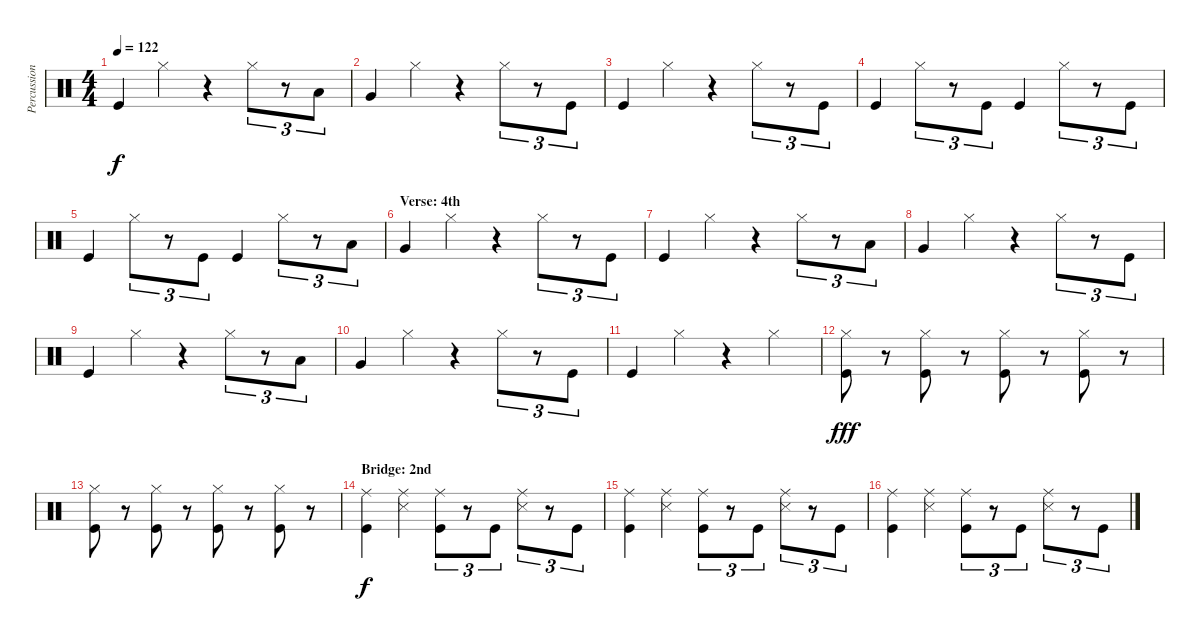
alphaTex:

\track ("Percussion" "Percussion") {instrument percussion}
\staff {score}
\articulation defaults
\ts (4 4)
\tempo 122
\clef neutral
\ks c "Kick (hit)".4{dy f} "Hi-Hat (closed)".4
r.4 "Hi-Hat (closed)".8{tu (3 2)} r.8{tu (3 2)} "Low Tom (hit)".8{tu (3 2)} |
"Very Low Tom (hit)".4 "Hi-Hat (closed)".4 r.4 "Hi-Hat (closed)".8{tu (3 2)} r.8{tu (3 2)} "Kick (hit)".8{tu (3 2)} |
"Kick (hit)".4 "Hi-Hat (closed)".4 r.4 "Hi-Hat (closed)".8{tu (3 2)} r.8{tu (3 2)} "Kick (hit)".8{tu (3 2)} |
"Kick (hit)".4 "Hi-Hat (closed)".8{tu (3 2)} r.8{tu (3 2)} "Kick (hit)".8{tu (3 2)} "Kick (hit)".4 "Hi-Hat (closed)".8{tu (3 2)} r.8{tu (3 2)} "Kick (hit)".8{tu (3 2)} |
"Kick (hit)".4 "Hi-Hat (closed)".8{tu (3 2)} r.8{tu (3 2)} "Kick (hit)".8{tu (3 2)} "Kick (hit)".4 "Hi-Hat (closed)".8{tu (3 2)} r.8{tu (3 2)} "Low Tom (hit)".8{tu (3 2)} |
\section ("" "Verse: 4th")
"Very Low Tom (hit)".4 "Hi-Hat (closed)".4 r.4 "Hi-Hat (closed)".8{tu (3 2)} r.8{tu (3 2)} "Kick (hit)".8{tu (3 2)} |
"Kick (hit)".4 "Hi-Hat (closed)".4 r.4 "Hi-Hat (closed)".8{tu (3 2)} r.8{tu (3 2)} "Low Tom (hit)".8{tu (3 2)} |
"Very Low Tom (hit)".4 "Hi-Hat (closed)".4 r.4 "Hi-Hat (closed)".8{tu (3 2)} r.8{tu (3 2)} "Kick (hit)".8{tu (3 2)} |
"Kick (hit)".4 "Hi-Hat (closed)".4 r.4 "Hi-Hat (closed)".8{tu (3 2)} r.8{tu (3 2)} "Low Tom (hit)".8{tu (3 2)} |
"Very Low Tom (hit)".4 "Hi-Hat (closed)".4 r.4 "Hi-Hat (closed)".8{tu (3 2)} r.8{tu (3 2)} "Kick (hit)".8{tu (3 2)} |
"Kick (hit)".4 "Hi-Hat (closed)".4 r.4 "Hi-Hat (closed)".4 |
("Hi-Hat (closed)" "Kick (hit)").8{dy fff} r.8 ("Hi-Hat (closed)" "Kick (hit)").8 r.8 ("Hi-Hat (closed)" "Kick (hit)").8 r.8 ("Hi-Hat (closed)" "Kick (hit)").8 r.8 |
("Hi-Hat (closed)" "Kick (hit)").8 r.8 ("Hi-Hat (closed)" "Kick (hit)").8 r.8 ("Hi-Hat (closed)" "Kick (hit)").8 r.8 ("Hi-Hat (closed)" "Kick (hit)").8 r.8 |
\section ("" "Bridge: 2nd")
("Ride (middle)" "Kick (hit)").4{dy f} ("Ride (middle)" "Snare (side stick) 3").4 ("Ride (middle)" "Kick (hit)").8{tu (3 2)} r.8{tu (3 2)} "Kick (hit)".8{tu (3 2)} ("Ride (middle)" "Snare (side stick) 3").8{tu (3 2)} r.8{tu (3 2)} "Kick (hit)".8{tu (3 2)} |
("Ride (middle)" "Kick (hit)").4 ("Ride (middle)" "Snare (side stick) 3").4 ("Ride (middle)" "Kick (hit)").8{tu (3 2)} r.8{tu (3 2)} "Kick (hit)".8{tu (3 2)} ("Ride (middle)" "Snare (side stick) 3").8{tu (3 2)} r.8{tu (3 2)} "Kick (hit)".8{tu (3 2)} |
("Ride (middle)" "Kick (hit)").4 ("Ride (middle)" "Snare (side stick) 3").4 ("Ride (middle)" "Kick (hit)").8{tu (3 2)} r.8{tu (3 2)} "Kick (hit)".8{tu (3 2)} ("Ride (middle)" "Snare (side stick) 3").8{tu (3 2)} r.8{tu (3 2)} "Kick (hit)".8{tu (3 2)}
